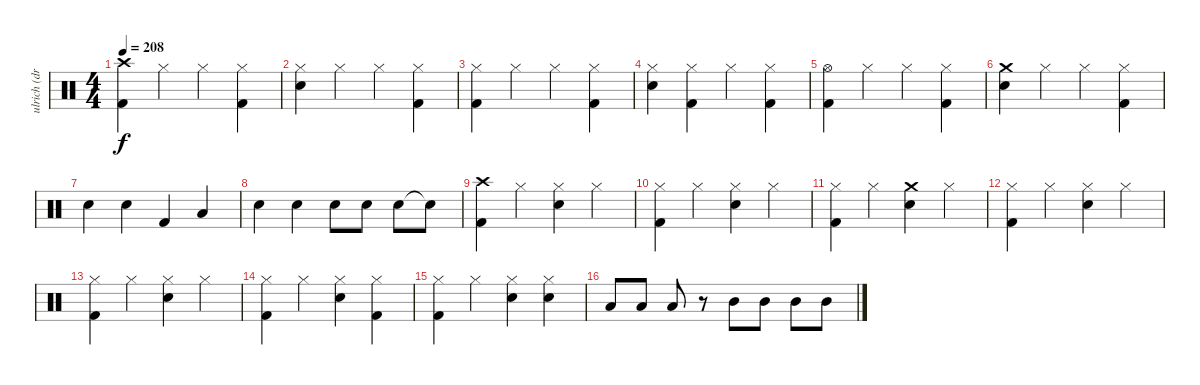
\track ("ulrich (drums)" "ulrich (dr") {instrument percussion}
\staff {score}
\articulation defaults
\ts (4 4)
\tempo 208
\clef neutral
\ks c
("Crash high (hit)" "Kick (hit) 2").4{dy f} "Hi-Hat (closed)".4 "Hi-Hat (closed)".4 ("Hi-Hat (closed)" "Kick (hit) 2").4 |
("Hi-Hat (closed)" "Snare (hit) 2").4 "Hi-Hat (closed)".4 "Hi-Hat (closed)".4 ("Hi-Hat (closed)" "Kick (hit) 2").4 |
("Hi-Hat (closed)" "Kick (hit) 2").4 "Hi-Hat (closed)".4 "Hi-Hat (closed)".4 ("Hi-Hat (closed)" "Kick (hit) 2").4 |
("Hi-Hat (closed)" "Snare (hit) 2").4 ("Hi-Hat (closed)" "Kick (hit) 2").4 "Hi-Hat (closed)".4 ("Hi-Hat (closed)" "Kick (hit) 2").4 |
("Hi-Hat (open)" "Kick (hit) 2").4 "Hi-Hat (closed)".4 "Hi-Hat (closed)".4 ("Hi-Hat (closed)" "Kick (hit) 2").4 |
("Crash medium (hit)" "Snare (hit) 2").4 "Hi-Hat (closed)".4 "Hi-Hat (closed)".4 ("Hi-Hat (closed)" "Kick (hit) 2").4 |
"Snare (hit) 2".4 "Snare (hit) 2".4 "Kick (hit) 2".4 "Low Tom (hit)".4 |
"Snare (hit) 2".4 "Snare (hit) 2".4 "Snare (hit) 2".8 "Snare (hit) 2".8 "Snare (hit) 2".8 "Snare (hit)"{t}.8 |
("Crash high (hit)" "Kick (hit) 2").4 "Hi-Hat (closed)".4 ("Hi-Hat (closed)" "Snare (hit) 2").4 "Hi-Hat (closed)".4 |
("Hi-Hat (closed)" "Kick (hit) 2").4 "Hi-Hat (closed)".4 ("Hi-Hat (closed)" "Snare (hit) 2").4 "Hi-Hat (closed)".4 |
("Hi-Hat (closed)" "Kick (hit) 2").4 "Hi-Hat (closed)".4 ("Crash medium (hit)" "Snare (hit) 2").4 "Hi-Hat (closed)".4 |
("Hi-Hat (closed)" "Kick (hit) 2").4 "Hi-Hat (closed)".4 ("Hi-Hat (closed)" "Snare (hit) 2").4 "Hi-Hat (closed)".4 |
("Hi-Hat (closed)" "Kick (hit) 2").4 "Hi-Hat (closed)".4 ("Hi-Hat (closed)" "Snare (hit) 2").4 "Hi-Hat (closed)".4 |
("Hi-Hat (closed)" "Kick (hit) 2").4 "Hi-Hat (closed)".4 ("Hi-Hat (closed)" "Snare (hit) 2").4 ("Hi-Hat (closed)" "Kick (hit) 2").4 |
("Hi-Hat (closed)" "Kick (hit) 2").4 "Hi-Hat (closed)".4 ("Hi-Hat (closed)" "Snare (hit) 2").4 ("Hi-Hat (closed)" "Snare (hit) 2").4 |
"Low Tom (hit)".8 "Low Tom (hit)".8 "Low Tom (hit)".8 r.8 "Mid Tom (hit)".8 "Mid Tom (hit)".8 "Mid Tom (hit)".8 "Mid Tom (hit)".8
